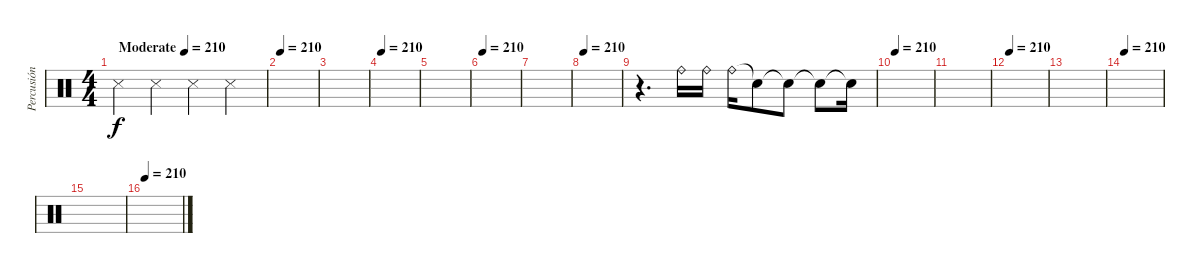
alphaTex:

\track ("Percusión" "Percusión") {instrument percussion}
\staff {score}
\articulation defaults
\ts (4 4)
\tempo (210 "Moderate")
\clef neutral
\ks c "Metronome (hit)".4{dy f} "Metronome (hit)".4 "Metronome (hit)".4 "Metronome (hit)".4
|
\tempo 210
|
|
\tempo 210
|
|
\tempo 210
|
|
\tempo 210
|
r.4{d} "Ride (bell)".16 "Ride (bell)".16 "Ride (bell)".16 "Snare (hit)"{t}.8 "Snare (hit)"{t}.8 "Snare (hit)"{t}.8 "Snare (hit)"{t}.16 |
\tempo 210
|
|
\tempo 210
|
|
\tempo 210
|
|
\tempo 210
